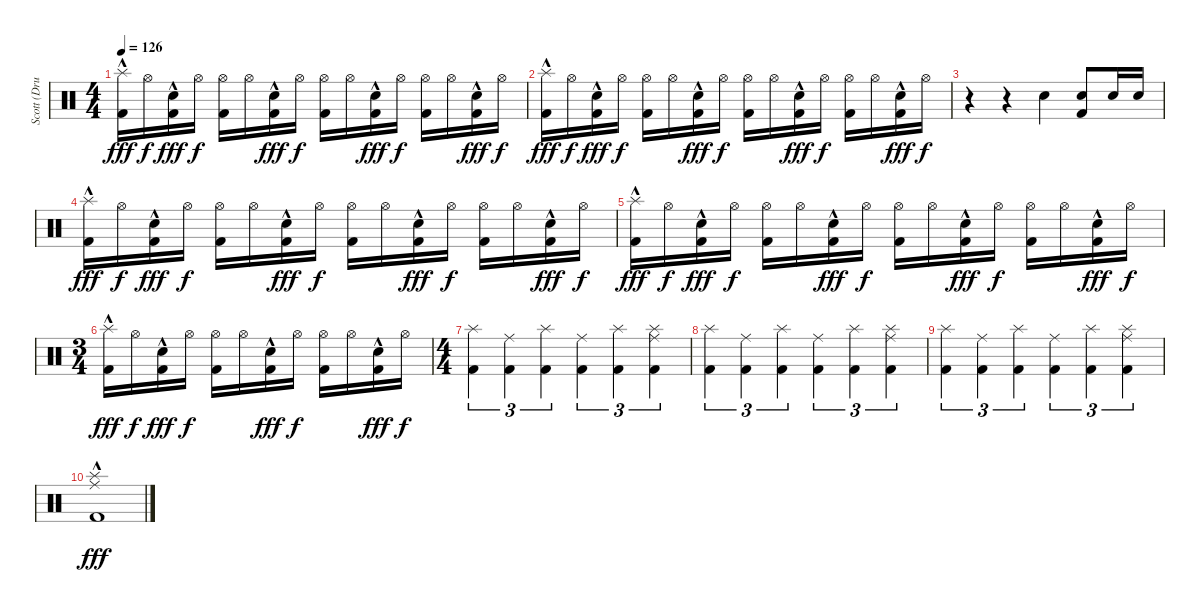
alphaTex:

\track ("Scott (Drums)" "Scott (Dru") {instrument percussion}
\staff {score}
\articulation defaults
\ts (4 4)
\tempo 126
\clef neutral
\ks c
("Splash (hit)"{hac} "Kick (hit) 2").16{dy fff} "Hi-Hat (open)".16{dy f} ("Electric Snare (hit)"{hac} "Kick (hit) 2").16{dy fff} "Hi-Hat (open)".16{dy f} ("Hi-Hat (open)" "Kick (hit) 2").16 "Hi-Hat (open)".16 ("Electric Snare (hit)"{hac} "Kick (hit) 2").16{dy fff} "Hi-Hat (open)".16{dy f} ("Hi-Hat (open)" "Kick (hit) 2").16 "Hi-Hat (open)".16 ("Electric Snare (hit)"{hac} "Kick (hit) 2").16{dy fff} "Hi-Hat (open)".16{dy f} ("Hi-Hat (open)" "Kick (hit) 2").16 "Hi-Hat (open)".16 ("Electric Snare (hit)"{hac} "Kick (hit) 2").16{dy fff} "Hi-Hat (open)".16{dy f} |
("Splash (hit)"{hac} "Kick (hit) 2").16{dy fff} "Hi-Hat (open)".16{dy f} ("Electric Snare (hit)"{hac} "Kick (hit) 2").16{dy fff} "Hi-Hat (open)".16{dy f} ("Hi-Hat (open)" "Kick (hit) 2").16 "Hi-Hat (open)".16 ("Electric Snare (hit)"{hac} "Kick (hit) 2").16{dy fff} "Hi-Hat (open)".16{dy f} ("Hi-Hat (open)" "Kick (hit) 2").16 "Hi-Hat (open)".16 ("Electric Snare (hit)"{hac} "Kick (hit) 2").16{dy fff} "Hi-Hat (open)".16{dy f} ("Hi-Hat (open)" "Kick (hit) 2").16 "Hi-Hat (open)".16 ("Electric Snare (hit)"{hac} "Kick (hit) 2").16{dy fff} "Hi-Hat (open)".16{dy f} |
r.4 r.4 "Electric Snare (hit)".4 ("Electric Snare (hit)" "Kick (hit) 2").8 "Electric Snare (hit)".16 "Electric Snare (hit)".16 |
("Splash (hit)"{hac} "Kick (hit) 2").16{dy fff} "Hi-Hat (open)".16{dy f} ("Electric Snare (hit)"{hac} "Kick (hit) 2").16{dy fff} "Hi-Hat (open)".16{dy f} ("Hi-Hat (open)" "Kick (hit) 2").16 "Hi-Hat (open)".16 ("Electric Snare (hit)"{hac} "Kick (hit) 2").16{dy fff} "Hi-Hat (open)".16{dy f} ("Hi-Hat (open)" "Kick (hit) 2").16 "Hi-Hat (open)".16 ("Electric Snare (hit)"{hac} "Kick (hit) 2").16{dy fff} "Hi-Hat (open)".16{dy f} ("Hi-Hat (open)" "Kick (hit) 2").16 "Hi-Hat (open)".16 ("Electric Snare (hit)"{hac} "Kick (hit) 2").16{dy fff} "Hi-Hat (open)".16{dy f} |
("Splash (hit)"{hac} "Kick (hit) 2").16{dy fff} "Hi-Hat (open)".16{dy f} ("Electric Snare (hit)"{hac} "Kick (hit) 2").16{dy fff} "Hi-Hat (open)".16{dy f} ("Hi-Hat (open)" "Kick (hit) 2").16 "Hi-Hat (open)".16 ("Electric Snare (hit)"{hac} "Kick (hit) 2").16{dy fff} "Hi-Hat (open)".16{dy f} ("Hi-Hat (open)" "Kick (hit) 2").16 "Hi-Hat (open)".16 ("Electric Snare (hit)"{hac} "Kick (hit) 2").16{dy fff} "Hi-Hat (open)".16{dy f} ("Hi-Hat (open)" "Kick (hit) 2").16 "Hi-Hat (open)".16 ("Electric Snare (hit)"{hac} "Kick (hit) 2").16{dy fff} "Hi-Hat (open)".16{dy f} |
\ts (3 4)
("Splash (hit)"{hac} "Kick (hit) 2").16{dy fff} "Hi-Hat (open)".16{dy f} ("Electric Snare (hit)"{hac} "Kick (hit) 2").16{dy fff} "Hi-Hat (open)".16{dy f} ("Hi-Hat (open)" "Kick (hit) 2").16 "Hi-Hat (open)".16 ("Electric Snare (hit)"{hac} "Kick (hit) 2").16{dy fff} "Hi-Hat (open)".16{dy f} ("Hi-Hat (open)" "Kick (hit) 2").16 "Hi-Hat (open)".16 ("Electric Snare (hit)"{hac} "Kick (hit) 2").16{dy fff} "Hi-Hat (open)".16{dy f} |
\ts (4 4)
("Splash (hit)" "Kick (hit) 2").4{tu (3 2)} ("Ride (middle)" "Kick (hit) 2").4{tu (3 2)} ("Splash (hit)" "Kick (hit) 2").4{tu (3 2)} ("Ride (middle)" "Kick (hit) 2").4{tu (3 2)} ("Splash (hit)" "Kick (hit) 2").4{tu (3 2)} ("Ride (middle)" "Splash (hit)" "Kick (hit) 2").4{tu (3 2)} |
("Splash (hit)" "Kick (hit) 2").4{tu (3 2)} ("Ride (middle)" "Kick (hit) 2").4{tu (3 2)} ("Splash (hit)" "Kick (hit) 2").4{tu (3 2)} ("Ride (middle)" "Kick (hit) 2").4{tu (3 2)} ("Splash (hit)" "Kick (hit) 2").4{tu (3 2)} ("Ride (middle)" "Splash (hit)" "Kick (hit) 2").4{tu (3 2)} |
("Splash (hit)" "Kick (hit) 2").4{tu (3 2)} ("Ride (middle)" "Kick (hit) 2").4{tu (3 2)} ("Splash (hit)" "Kick (hit) 2").4{tu (3 2)} ("Ride (middle)" "Kick (hit) 2").4{tu (3 2)} ("Splash (hit)" "Kick (hit) 2").4{tu (3 2)} ("Ride (middle)" "Splash (hit)" "Kick (hit) 2").4{tu (3 2)} |
("Splash (hit)"{hac} "Ride (middle)"{hac} "Kick (hit) 2"{hac}).1{dy fff}
